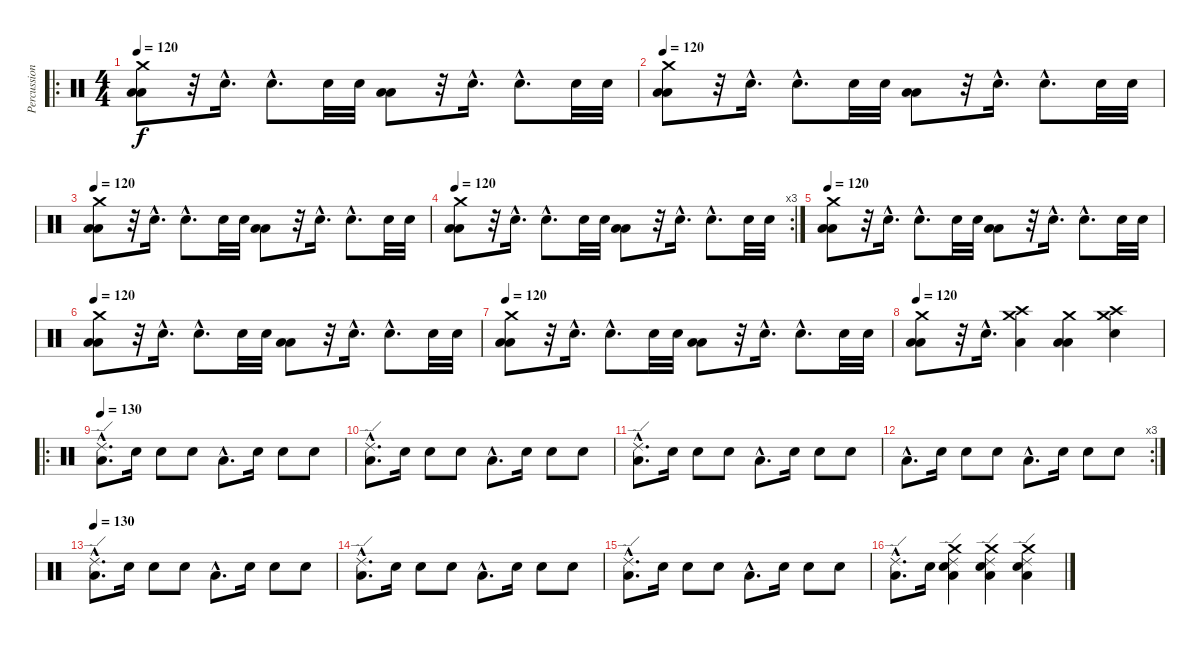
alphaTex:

\track ("Percussions" "Percussion") {instrument percussion}
\staff {score}
\articulation defaults
\ro
\ts (4 4)
\tempo 120
\clef neutral
\ks c
("Low Floor Tom (hit)" "Low Tom (hit)" "Crash medium (hit)").8{dy f} r.32 "Snare (hit) 2"{hac}.16{d} "Snare (hit) 2"{hac}.8{d} "Snare (hit) 2".32 "Snare (hit) 2".32 ("Low Floor Tom (hit)" "Low Tom (hit)").8 r.32 "Snare (hit) 2"{hac}.16{d} "Snare (hit) 2"{hac}.8{d} "Snare (hit) 2".32 "Snare (hit) 2".32 |
\tempo 120
("Low Floor Tom (hit)" "Low Tom (hit)" "Crash medium (hit)").8 r.32 "Snare (hit) 2"{hac}.16{d} "Snare (hit) 2"{hac}.8{d} "Snare (hit) 2".32 "Snare (hit) 2".32 ("Low Floor Tom (hit)" "Low Tom (hit)").8 r.32 "Snare (hit) 2"{hac}.16{d} "Snare (hit) 2"{hac}.8{d} "Snare (hit) 2".32 "Snare (hit) 2".32 |
\tempo 120
("Low Floor Tom (hit)" "Low Tom (hit)" "Crash medium (hit)").8 r.32 "Snare (hit) 2"{hac}.16{d} "Snare (hit) 2"{hac}.8{d} "Snare (hit) 2".32 "Snare (hit) 2".32 ("Low Floor Tom (hit)" "Low Tom (hit)").8 r.32 "Snare (hit) 2"{hac}.16{d} "Snare (hit) 2"{hac}.8{d} "Snare (hit) 2".32 "Snare (hit) 2".32 |
\rc 3
\tempo 120
("Low Floor Tom (hit)" "Low Tom (hit)" "Crash medium (hit)").8 r.32 "Snare (hit) 2"{hac}.16{d} "Snare (hit) 2"{hac}.8{d} "Snare (hit) 2".32 "Snare (hit) 2".32 ("Low Floor Tom (hit)" "Low Tom (hit)").8 r.32 "Snare (hit) 2"{hac}.16{d} "Snare (hit) 2"{hac}.8{d} "Snare (hit) 2".32 "Snare (hit) 2".32 |
\tempo 120
("Low Floor Tom (hit)" "Low Tom (hit)" "Crash medium (hit)").8 r.32 "Snare (hit) 2"{hac}.16{d} "Snare (hit) 2"{hac}.8{d} "Snare (hit) 2".32 "Snare (hit) 2".32 ("Low Floor Tom (hit)" "Low Tom (hit)").8 r.32 "Snare (hit) 2"{hac}.16{d} "Snare (hit) 2"{hac}.8{d} "Snare (hit) 2".32 "Snare (hit) 2".32 |
\tempo 120
("Low Floor Tom (hit)" "Low Tom (hit)" "Crash medium (hit)").8 r.32 "Snare (hit) 2"{hac}.16{d} "Snare (hit) 2"{hac}.8{d} "Snare (hit) 2".32 "Snare (hit) 2".32 ("Low Floor Tom (hit)" "Low Tom (hit)").8 r.32 "Snare (hit) 2"{hac}.16{d} "Snare (hit) 2"{hac}.8{d} "Snare (hit) 2".32 "Snare (hit) 2".32 |
\tempo 120
("Low Floor Tom (hit)" "Low Tom (hit)" "Crash medium (hit)").8 r.32 "Snare (hit) 2"{hac}.16{d} "Snare (hit) 2"{hac}.8{d} "Snare (hit) 2".32 "Snare (hit) 2".32 ("Low Floor Tom (hit)" "Low Tom (hit)").8 r.32 "Snare (hit) 2"{hac}.16{d} "Snare (hit) 2"{hac}.8{d} "Snare (hit) 2".32 "Snare (hit) 2".32 |
\tempo 120
("Low Floor Tom (hit)" "Low Tom (hit)" "Crash medium (hit)").8 r.32 "Snare (hit) 2"{hac}.16{d} ("Low Floor Tom (hit)" "Crash high (hit)" "Crash medium (hit)").4 ("Low Floor Tom (hit)" "Low Tom (hit)" "Crash medium (hit)").4 ("Snare (hit) 2" "Crash high (hit)" "Crash medium (hit)").4 |
\ro
\tempo 130
("Low Floor Tom (hit)"{hac} "Ride (edge) 2"{hac}).8{d} "Snare (hit) 2".16 "Snare (hit) 2".8 "Snare (hit) 2".8 "Low Floor Tom (hit)"{hac}.8{d} "Snare (hit) 2".16 "Snare (hit) 2".8 "Snare (hit) 2".8 |
("Low Floor Tom (hit)"{hac} "Ride (edge) 2"{hac}).8{d} "Snare (hit) 2".16 "Snare (hit) 2".8 "Snare (hit) 2".8 "Low Floor Tom (hit)"{hac}.8{d} "Snare (hit) 2".16 "Snare (hit) 2".8 "Snare (hit) 2".8 |
("Low Floor Tom (hit)"{hac} "Ride (edge) 2"{hac}).8{d} "Snare (hit) 2".16 "Snare (hit) 2".8 "Snare (hit) 2".8 "Low Floor Tom (hit)"{hac}.8{d} "Snare (hit) 2".16 "Snare (hit) 2".8 "Snare (hit) 2".8 |
\rc 3 "Low Floor Tom (hit)"{hac}.8{d} "Snare (hit) 2".16 "Snare (hit) 2".8 "Snare (hit) 2".8 "Low Floor Tom (hit)"{hac}.8{d} "Snare (hit) 2".16 "Snare (hit) 2".8 "Snare (hit) 2".8
|
\tempo 130
("Low Floor Tom (hit)"{hac} "Ride (edge) 2"{hac}).8{d} "Snare (hit) 2".16 "Snare (hit) 2".8 "Snare (hit) 2".8 "Low Floor Tom (hit)"{hac}.8{d} "Snare (hit) 2".16 "Snare (hit) 2".8 "Snare (hit) 2".8 |
("Low Floor Tom (hit)"{hac} "Ride (edge) 2"{hac}).8{d} "Snare (hit) 2".16 "Snare (hit) 2".8 "Snare (hit) 2".8 "Low Floor Tom (hit)"{hac}.8{d} "Snare (hit) 2".16 "Snare (hit) 2".8 "Snare (hit) 2".8 |
("Low Floor Tom (hit)"{hac} "Ride (edge) 2"{hac}).8{d} "Snare (hit) 2".16 "Snare (hit) 2".8 "Snare (hit) 2".8 "Low Floor Tom (hit)"{hac}.8{d} "Snare (hit) 2".16 "Snare (hit) 2".8 "Snare (hit) 2".8 |
("Low Floor Tom (hit)"{hac} "Ride (edge) 2"{hac}).8{d} "Snare (hit) 2".16 ("Low Floor Tom (hit)" "Snare (hit) 2" "Crash medium (hit)" "Ride (edge) 2").4 ("Low Floor Tom (hit)" "Snare (hit) 2" "Crash medium (hit)" "Ride (edge) 2").4 ("Low Floor Tom (hit)" "Snare (hit) 2" "Crash medium (hit)" "Ride (edge) 2").4
